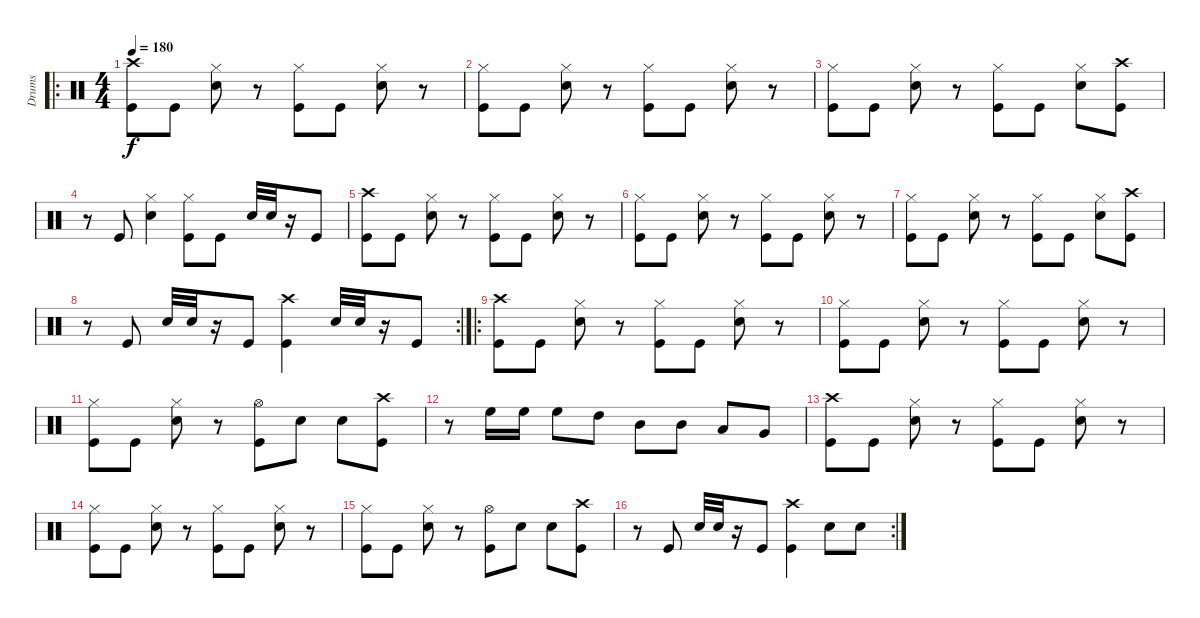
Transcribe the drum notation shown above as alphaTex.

\track ("Drums" "Drums") {instrument percussion}
\staff {score}
\articulation defaults
\ro
\ts (4 4)
\tempo 180
\clef neutral
\ks c
("Crash high (hit)" "Kick (hit)").8{dy f} "Kick (hit)".8 ("Hi-Hat (closed)" "Snare (hit) 2").8 r.8 ("Hi-Hat (closed)" "Kick (hit)").8 "Kick (hit)".8 ("Hi-Hat (closed)" "Snare (hit) 2").8 r.8 |
("Hi-Hat (closed)" "Kick (hit)").8 "Kick (hit)".8 ("Hi-Hat (closed)" "Snare (hit) 2").8 r.8 ("Hi-Hat (closed)" "Kick (hit)").8 "Kick (hit)".8 ("Hi-Hat (closed)" "Snare (hit) 2").8 r.8 |
("Hi-Hat (closed)" "Kick (hit)").8 "Kick (hit)".8 ("Hi-Hat (closed)" "Snare (hit) 2").8 r.8 ("Hi-Hat (closed)" "Kick (hit)").8 "Kick (hit)".8 ("Hi-Hat (closed)" "Snare (hit) 2").8 ("Crash high (hit)" "Kick (hit)").8 |
r.8 "Kick (hit)".8 ("Hi-Hat (closed)" "Snare (hit) 2").4 ("Hi-Hat (closed)" "Kick (hit)").8 "Kick (hit)".8 "Snare (hit) 2".32 "Snare (hit) 2".32 r.16 "Kick (hit)".8 |
("Crash high (hit)" "Kick (hit)").8 "Kick (hit)".8 ("Hi-Hat (closed)" "Snare (hit) 2").8 r.8 ("Hi-Hat (closed)" "Kick (hit)").8 "Kick (hit)".8 ("Hi-Hat (closed)" "Snare (hit) 2").8 r.8 |
("Hi-Hat (closed)" "Kick (hit)").8 "Kick (hit)".8 ("Hi-Hat (closed)" "Snare (hit) 2").8 r.8 ("Hi-Hat (closed)" "Kick (hit)").8 "Kick (hit)".8 ("Hi-Hat (closed)" "Snare (hit) 2").8 r.8 |
("Hi-Hat (closed)" "Kick (hit)").8 "Kick (hit)".8 ("Hi-Hat (closed)" "Snare (hit) 2").8 r.8 ("Hi-Hat (closed)" "Kick (hit)").8 "Kick (hit)".8 ("Hi-Hat (closed)" "Snare (hit) 2").8 ("Crash high (hit)" "Kick (hit)").8 |
\rc 2
r.8 "Kick (hit)".8 "Snare (hit) 2".32 "Snare (hit) 2".32 r.16 "Kick (hit)".8 ("Crash high (hit)" "Kick (hit)").4 "Snare (hit) 2".32 "Snare (hit) 2".32 r.16 "Kick (hit)".8 |
\ro
("Crash high (hit)" "Kick (hit)").8 "Kick (hit)".8 ("Hi-Hat (closed)" "Snare (hit) 2").8 r.8 ("Hi-Hat (closed)" "Kick (hit)").8 "Kick (hit)".8 ("Hi-Hat (closed)" "Snare (hit) 2").8 r.8 |
("Hi-Hat (closed)" "Kick (hit)").8 "Kick (hit)".8 ("Hi-Hat (closed)" "Snare (hit) 2").8 r.8 ("Hi-Hat (closed)" "Kick (hit)").8 "Kick (hit)".8 ("Hi-Hat (closed)" "Snare (hit) 2").8 r.8 |
("Hi-Hat (closed)" "Kick (hit)").8 "Kick (hit)".8 ("Hi-Hat (closed)" "Snare (hit) 2").8 r.8 ("Hi-Hat (open)" "Kick (hit)").8 "Snare (hit) 2".8 "Snare (hit) 2".8 ("Crash high (hit)" "Kick (hit)").8 |
r.8 "High Floor Tom (hit)".16 "High Floor Tom (hit)".16 "High Floor Tom (hit)".8 "High Tom (hit)".8 "Mid Tom (hit)".8 "Mid Tom (hit)".8 "Low Tom (hit)".8 "Very Low Tom (hit)".8 |
("Crash high (hit)" "Kick (hit)").8 "Kick (hit)".8 ("Hi-Hat (closed)" "Snare (hit) 2").8 r.8 ("Hi-Hat (closed)" "Kick (hit)").8 "Kick (hit)".8 ("Hi-Hat (closed)" "Snare (hit) 2").8 r.8 |
("Hi-Hat (closed)" "Kick (hit)").8 "Kick (hit)".8 ("Hi-Hat (closed)" "Snare (hit) 2").8 r.8 ("Hi-Hat (closed)" "Kick (hit)").8 "Kick (hit)".8 ("Hi-Hat (closed)" "Snare (hit) 2").8 r.8 |
("Hi-Hat (closed)" "Kick (hit)").8 "Kick (hit)".8 ("Hi-Hat (closed)" "Snare (hit) 2").8 r.8 ("Hi-Hat (open)" "Kick (hit)").8 "Snare (hit) 2".8 "Snare (hit) 2".8 ("Crash high (hit)" "Kick (hit)").8 |
\rc 2
r.8 "Kick (hit)".8 "Snare (hit) 2".32 "Snare (hit) 2".32 r.16 "Kick (hit)".8 ("Crash high (hit)" "Kick (hit)").4 "Snare (hit) 2".8 "Snare (hit) 2".8
